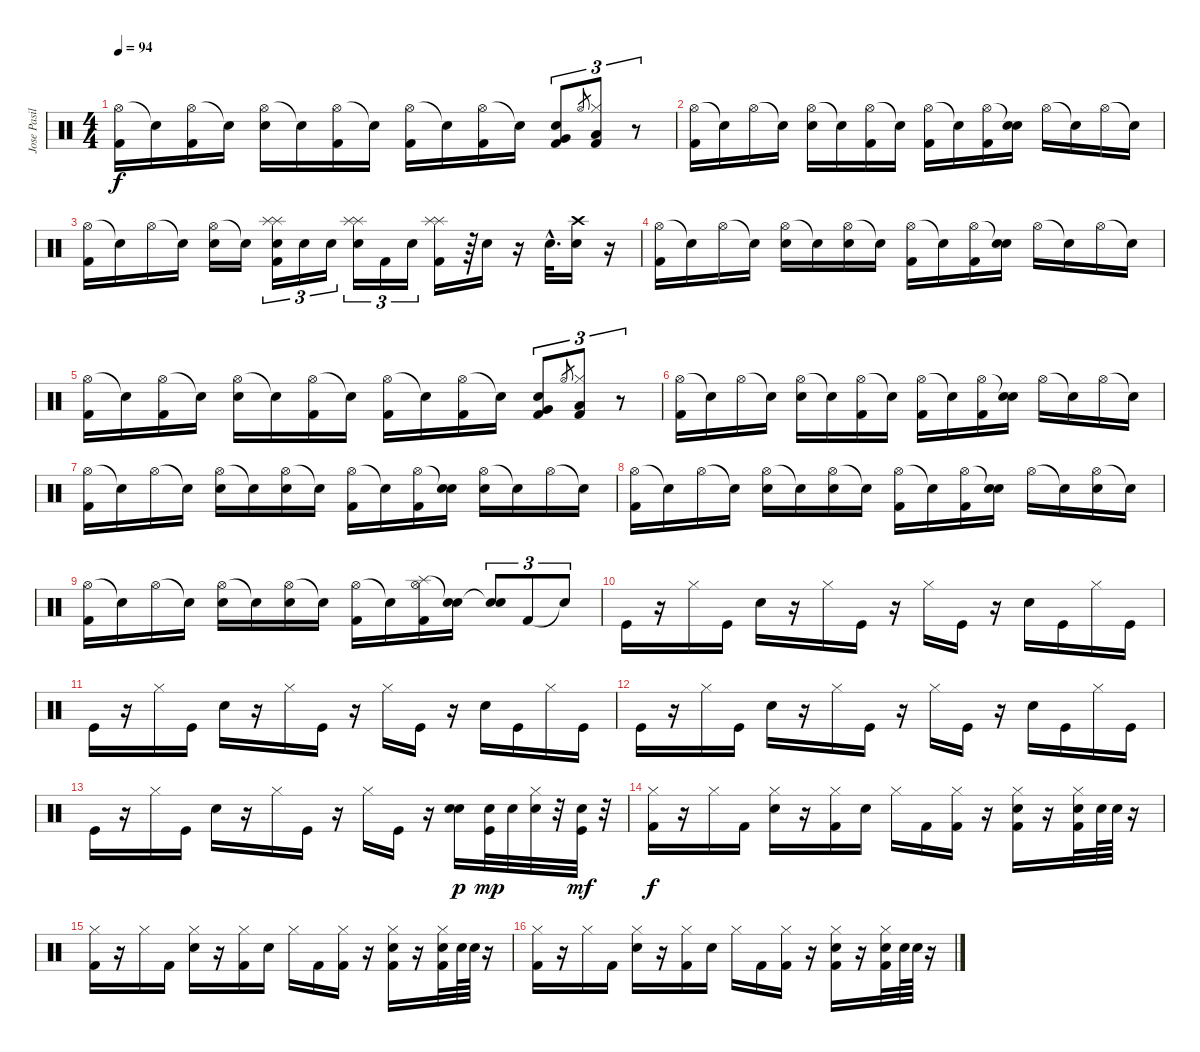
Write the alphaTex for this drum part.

\track ("Jose Pasillas" "Jose Pasil") {instrument percussion}
\staff {score}
\articulation defaults
\ts (4 4)
\tempo 94
\clef neutral
\ks c
("Hi-Hat (open)" "Kick (hit) 2").16{dy f} "Snare (hit)"{t}.16 ("Hi-Hat (open)" "Kick (hit) 2").16 "Snare (hit)"{t}.16 ("Hi-Hat (open)" "Electric Snare (hit)").16 "Snare (hit)"{t}.16 ("Hi-Hat (open)" "Kick (hit) 2").16 "Snare (hit)"{t}.16 ("Hi-Hat (open)" "Kick (hit) 2").16 "Snare (hit)"{t}.16 ("Hi-Hat (open)" "Kick (hit) 2").16 "Snare (hit)"{t}.16 ("Kick (hit) 2" "Very Low Tom (hit)" "Electric Snare (hit)").8{tu (3 2)} "Hi-Hat (open)".8{gr} ("Hi-Hat (closed)" "Kick (hit) 2" "Low Floor Tom (hit)").8{tu (3 2)} r.8{tu (3 2)} |
("Hi-Hat (open)" "Kick (hit) 2").16 "Snare (hit)"{t}.16 "Hi-Hat (open)".16 "Snare (hit)"{t}.16 ("Hi-Hat (open)" "Electric Snare (hit)").16 "Snare (hit)"{t}.16 ("Hi-Hat (open)" "Kick (hit) 2").16 "Snare (hit)"{t}.16 ("Hi-Hat (open)" "Kick (hit) 2").16 "Snare (hit)"{t}.16 ("Hi-Hat (open)" "Kick (hit) 2").16 ("Snare (hit)"{t} "Electric Snare (hit)").16 "Hi-Hat (open)".16 "Snare (hit)"{t}.16 "Hi-Hat (open)".16 "Snare (hit)"{t}.16 |
("Hi-Hat (open)" "Kick (hit) 2").16 "Snare (hit)"{t}.16 "Hi-Hat (open)".16 "Snare (hit)"{t}.16 ("Hi-Hat (open)" "Electric Snare (hit)").16 "Snare (hit)"{t}.16 ("Splash (hit)" "Splash (hit)" "Electric Snare (hit)" "Kick (hit) 2").16{tu (3 2)} "Electric Snare (hit)".16{tu (3 2)} "Electric Snare (hit)".16{tu (3 2)} ("Splash (hit)" "Splash (hit)" "Electric Snare (hit)").16{tu (3 2)} "Kick (hit) 2".16{tu (3 2)} "Electric Snare (hit)".16{tu (3 2)} ("Splash (hit)" "Splash (hit)" "Kick (hit) 2").16 r.64 "Electric Snare (hit)".16 r.16 "Electric Snare (hit)"{hac}.32{d} ("Crash high (hit)" "Electric Snare (hit)").16 r.16 |
("Hi-Hat (open)" "Kick (hit) 2").16 "Snare (hit)"{t}.16 "Hi-Hat (open)".16 "Snare (hit)"{t}.16 ("Hi-Hat (open)" "Electric Snare (hit)").16 "Snare (hit)"{t}.16 ("Hi-Hat (open)" "Electric Snare (hit)").16 "Snare (hit)"{t}.16 ("Hi-Hat (open)" "Kick (hit) 2").16 "Snare (hit)"{t}.16 ("Hi-Hat (open)" "Kick (hit) 2").16 ("Snare (hit)"{t} "Electric Snare (hit)").16 "Hi-Hat (open)".16 "Snare (hit)"{t}.16 "Hi-Hat (open)".16 "Snare (hit)"{t}.16 |
("Hi-Hat (open)" "Kick (hit) 2").16 "Snare (hit)"{t}.16 ("Hi-Hat (open)" "Kick (hit) 2").16 "Snare (hit)"{t}.16 ("Hi-Hat (open)" "Electric Snare (hit)").16 "Snare (hit)"{t}.16 ("Hi-Hat (open)" "Kick (hit) 2").16 "Snare (hit)"{t}.16 ("Hi-Hat (open)" "Kick (hit) 2").16 "Snare (hit)"{t}.16 ("Hi-Hat (open)" "Kick (hit) 2").16 "Snare (hit)"{t}.16 ("Kick (hit) 2" "Very Low Tom (hit)" "Electric Snare (hit)").8{tu (3 2)} "Hi-Hat (open)".8{gr} ("Hi-Hat (closed)" "Kick (hit) 2" "Low Floor Tom (hit)").8{tu (3 2)} r.8{tu (3 2)} |
("Hi-Hat (open)" "Kick (hit) 2").16 "Snare (hit)"{t}.16 "Hi-Hat (open)".16 "Snare (hit)"{t}.16 ("Hi-Hat (open)" "Electric Snare (hit)").16 "Snare (hit)"{t}.16 ("Hi-Hat (open)" "Kick (hit) 2").16 "Snare (hit)"{t}.16 ("Hi-Hat (open)" "Kick (hit) 2").16 "Snare (hit)"{t}.16 ("Hi-Hat (open)" "Kick (hit) 2").16 ("Snare (hit)"{t} "Electric Snare (hit)").16 "Hi-Hat (open)".16 "Snare (hit)"{t}.16 "Hi-Hat (open)".16 "Snare (hit)"{t}.16 |
("Hi-Hat (open)" "Kick (hit) 2").16 "Snare (hit)"{t}.16 "Hi-Hat (open)".16 "Snare (hit)"{t}.16 ("Hi-Hat (open)" "Electric Snare (hit)").16 "Snare (hit)"{t}.16 ("Hi-Hat (open)" "Electric Snare (hit)").16 "Snare (hit)"{t}.16 ("Hi-Hat (open)" "Kick (hit) 2").16 "Snare (hit)"{t}.16 ("Hi-Hat (open)" "Kick (hit) 2").16 ("Snare (hit)"{t} "Electric Snare (hit)").16 ("Hi-Hat (open)" "Electric Snare (hit)").16 "Snare (hit)"{t}.16 "Hi-Hat (open)".16 "Snare (hit)"{t}.16 |
("Hi-Hat (open)" "Kick (hit) 2").16 "Snare (hit)"{t}.16 "Hi-Hat (open)".16 "Snare (hit)"{t}.16 ("Hi-Hat (open)" "Electric Snare (hit)").16 "Snare (hit)"{t}.16 ("Hi-Hat (open)" "Electric Snare (hit)").16 "Snare (hit)"{t}.16 ("Hi-Hat (open)" "Kick (hit) 2").16 "Snare (hit)"{t}.16 ("Hi-Hat (open)" "Kick (hit) 2").16 ("Snare (hit)"{t} "Electric Snare (hit)").16 "Hi-Hat (open)".16 "Snare (hit)"{t}.16 ("Hi-Hat (open)" "Electric Snare (hit)").16 "Snare (hit)"{t}.16 |
("Hi-Hat (open)" "Kick (hit) 2").16 "Snare (hit)"{t}.16 "Hi-Hat (open)".16 "Snare (hit)"{t}.16 ("Hi-Hat (open)" "Electric Snare (hit)").16 "Snare (hit)"{t}.16 ("Hi-Hat (open)" "Electric Snare (hit)").16 "Snare (hit)"{t}.16 ("Hi-Hat (open)" "Kick (hit) 2").16 "Snare (hit)"{t}.16 ("Splash (hit)" "Hi-Hat (open)" "Kick (hit) 2").16 ("Snare (hit)"{t} "Electric Snare (hit)").16 ("Snare (hit)"{t} "Electric Snare (hit)").8{tu (3 2)} "Kick (hit) 2".8{tu (3 2)} "Snare (hit)"{t}.8{tu (3 2)} |
"Kick (hit)".16 r.16 "Hi-Hat (closed)".16 "Kick (hit)".16 "Snare (hit) 2".16 r.16 "Hi-Hat (closed)".16 "Kick (hit)".16 r.16 "Hi-Hat (closed)".16 "Kick (hit)".16 r.16 "Snare (hit) 2".16 "Kick (hit)".16 "Hi-Hat (closed)".16 "Kick (hit)".16 |
"Kick (hit)".16 r.16 "Hi-Hat (closed)".16 "Kick (hit)".16 "Snare (hit) 2".16 r.16 "Hi-Hat (closed)".16 "Kick (hit)".16 r.16 "Hi-Hat (closed)".16 "Kick (hit)".16 r.16 "Snare (hit) 2".16 "Kick (hit)".16 "Hi-Hat (closed)".16 "Kick (hit)".16 |
"Kick (hit)".16 r.16 "Hi-Hat (closed)".16 "Kick (hit)".16 "Snare (hit) 2".16 r.16 "Hi-Hat (closed)".16 "Kick (hit)".16 r.16 "Hi-Hat (closed)".16 "Kick (hit)".16 r.16 "Snare (hit) 2".16 "Kick (hit)".16 "Hi-Hat (closed)".16 "Kick (hit)".16 |
"Kick (hit)".16 r.16 "Hi-Hat (closed)".16 "Kick (hit)".16 "Snare (hit) 2".16 r.16 "Hi-Hat (closed)".16 "Kick (hit)".16 r.16 "Hi-Hat (closed)".16 "Kick (hit)".16 r.16 ("Electric Snare (hit)" "Snare (hit) 2").16{dy p} ("Electric Snare (hit)" "Kick (hit)").32{dy mp} "Electric Snare (hit)".32 ("Electric Snare (hit)" "Hi-Hat (closed)").32 r.32 ("Electric Snare (hit)" "Kick (hit)").32{dy mf} r.32 |
("Hi-Hat (closed)" "Kick (hit) 2").16{dy f} r.16 "Hi-Hat (closed)".16 "Kick (hit) 2".16 ("Hi-Hat (closed)" "Electric Snare (hit)").16 r.16 ("Hi-Hat (closed)" "Kick (hit) 2").16 "Electric Snare (hit)".16 "Hi-Hat (closed)".16 "Kick (hit) 2".16 ("Hi-Hat (closed)" "Kick (hit) 2").16 r.16 ("Hi-Hat (closed)" "Electric Snare (hit)" "Kick (hit) 2").16 r.16 ("Hi-Hat (closed)" "Electric Snare (hit)" "Kick (hit) 2").32 "Electric Snare (hit)".64 "Electric Snare (hit)".64 r.16 |
("Hi-Hat (closed)" "Kick (hit) 2").16 r.16 "Hi-Hat (closed)".16 "Kick (hit) 2".16 ("Hi-Hat (closed)" "Electric Snare (hit)").16 r.16 ("Hi-Hat (closed)" "Kick (hit) 2").16 "Electric Snare (hit)".16 "Hi-Hat (closed)".16 "Kick (hit) 2".16 ("Hi-Hat (closed)" "Kick (hit) 2").16 r.16 ("Hi-Hat (closed)" "Electric Snare (hit)" "Kick (hit) 2").16 r.16 ("Hi-Hat (closed)" "Electric Snare (hit)" "Kick (hit) 2").32 "Electric Snare (hit)".64 "Electric Snare (hit)".64 r.16 |
("Hi-Hat (closed)" "Kick (hit) 2").16 r.16 "Hi-Hat (closed)".16 "Kick (hit) 2".16 ("Hi-Hat (closed)" "Electric Snare (hit)").16 r.16 ("Hi-Hat (closed)" "Kick (hit) 2").16 "Electric Snare (hit)".16 "Hi-Hat (closed)".16 "Kick (hit) 2".16 ("Hi-Hat (closed)" "Kick (hit) 2").16 r.16 ("Hi-Hat (closed)" "Electric Snare (hit)" "Kick (hit) 2").16 r.16 ("Hi-Hat (closed)" "Electric Snare (hit)" "Kick (hit) 2").32 "Electric Snare (hit)".64 "Electric Snare (hit)".64 r.16
